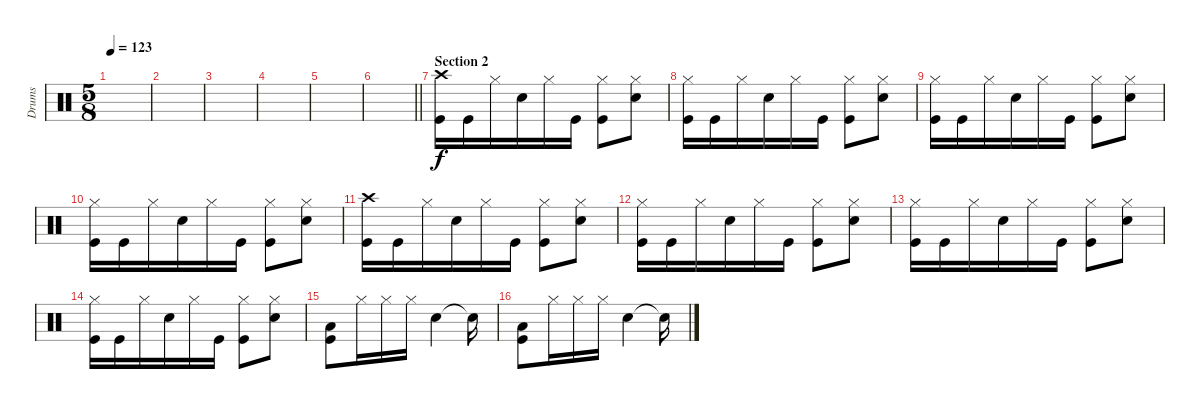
\track ("Drums" "Drums") {instrument percussion}
\staff {score}
\articulation defaults
\ts (5 8)
\tempo 123
\clef neutral
\ks c
|
|
|
|
|
\barLineRight lightlight
|
\section ("" "Section 2")
("Crash high (hit)" "Kick (hit)").16 "Kick (hit)".16 "Hi-Hat (closed)".16 "Snare (hit) 2".16 "Hi-Hat (closed)".16 "Kick (hit)".16 ("Hi-Hat (closed)" "Kick (hit)").8 ("Hi-Hat (closed)" "Snare (hit) 2").8 |
("Hi-Hat (closed)" "Kick (hit)").16 "Kick (hit)".16 "Hi-Hat (closed)".16 "Snare (hit) 2".16 "Hi-Hat (closed)".16 "Kick (hit)".16 ("Hi-Hat (closed)" "Kick (hit)").8 ("Hi-Hat (closed)" "Snare (hit) 2").8 |
("Hi-Hat (closed)" "Kick (hit)").16 "Kick (hit)".16 "Hi-Hat (closed)".16 "Snare (hit) 2".16 "Hi-Hat (closed)".16 "Kick (hit)".16 ("Hi-Hat (closed)" "Kick (hit)").8 ("Hi-Hat (closed)" "Snare (hit) 2").8 |
("Hi-Hat (closed)" "Kick (hit)").16 "Kick (hit)".16 "Hi-Hat (closed)".16 "Snare (hit) 2".16 "Hi-Hat (closed)".16 "Kick (hit)".16 ("Hi-Hat (closed)" "Kick (hit)").8 ("Hi-Hat (closed)" "Snare (hit) 2").8 |
("Crash high (hit)" "Kick (hit)").16 "Kick (hit)".16 "Hi-Hat (closed)".16 "Snare (hit) 2".16 "Hi-Hat (closed)".16 "Kick (hit)".16 ("Hi-Hat (closed)" "Kick (hit)").8 ("Hi-Hat (closed)" "Snare (hit) 2").8 |
("Hi-Hat (closed)" "Kick (hit)").16 "Kick (hit)".16 "Hi-Hat (closed)".16 "Snare (hit) 2".16 "Hi-Hat (closed)".16 "Kick (hit)".16 ("Hi-Hat (closed)" "Kick (hit)").8 ("Hi-Hat (closed)" "Snare (hit) 2").8 |
("Hi-Hat (closed)" "Kick (hit)").16 "Kick (hit)".16 "Hi-Hat (closed)".16 "Snare (hit) 2".16 "Hi-Hat (closed)".16 "Kick (hit)".16 ("Hi-Hat (closed)" "Kick (hit)").8 ("Hi-Hat (closed)" "Snare (hit) 2").8 |
("Hi-Hat (closed)" "Kick (hit)").16 "Kick (hit)".16 "Hi-Hat (closed)".16 "Snare (hit) 2".16 "Hi-Hat (closed)".16 "Kick (hit)".16 ("Hi-Hat (closed)" "Kick (hit)").8 ("Hi-Hat (closed)" "Snare (hit) 2").8 |
("Low Tom (hit)" "Kick (hit)").8 "Hi-Hat (closed)".16 "Hi-Hat (closed)".16 "Hi-Hat (closed)".16 "Snare (hit) 2".4 "Snare (hit)"{t}.16 |
("Low Tom (hit)" "Kick (hit)").8 "Hi-Hat (closed)".16 "Hi-Hat (closed)".16 "Hi-Hat (closed)".16 "Snare (hit) 2".4 "Snare (hit)"{t}.16
